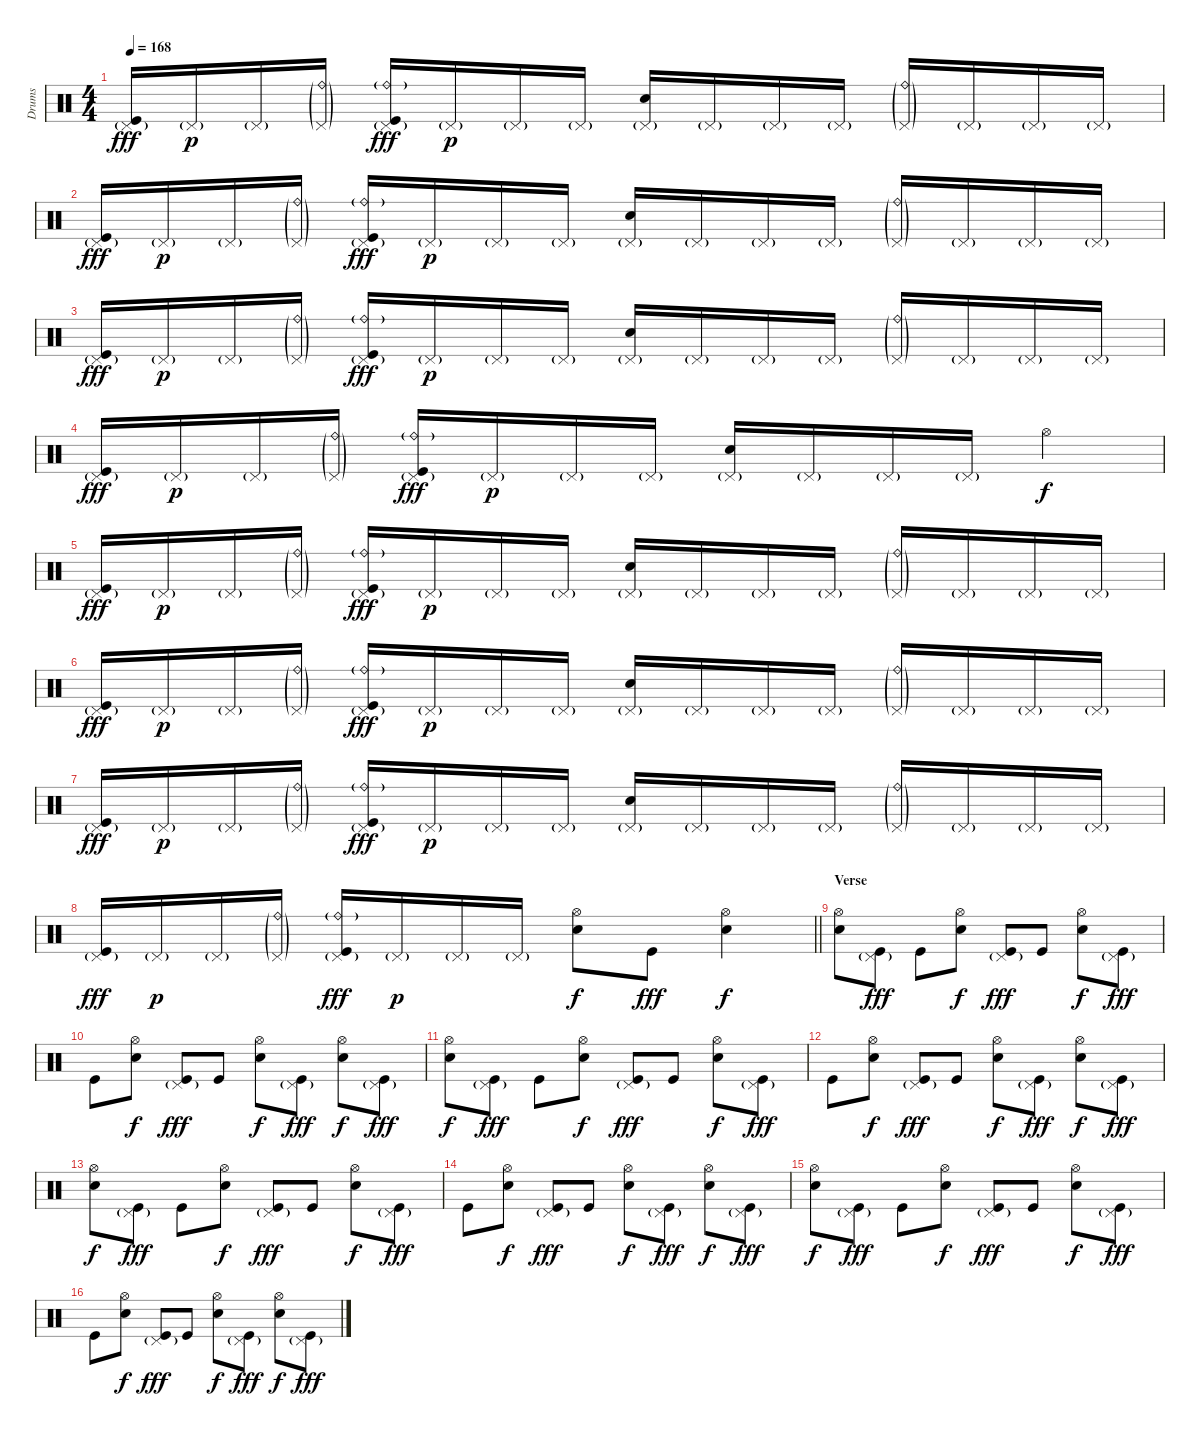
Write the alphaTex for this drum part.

\track ("Drums" "Drums") {instrument percussion}
\staff {score}
\articulation defaults
\ts (4 4)
\tempo 168
\clef neutral
\ks c
("Pedal Hi-Hat (hit)"{g} "Kick (hit)").16{dy fff} "Pedal Hi-Hat (hit)"{g}.16{dy p} "Pedal Hi-Hat (hit)"{g}.16 ("Ride (bell)"{g} "Pedal Hi-Hat (hit)"{g}).16 ("Ride (bell)"{g} "Pedal Hi-Hat (hit)"{g} "Kick (hit)").16{dy fff} "Pedal Hi-Hat (hit)"{g}.16{dy p} "Pedal Hi-Hat (hit)"{g}.16 "Pedal Hi-Hat (hit)"{g}.16 ("Pedal Hi-Hat (hit)"{g} "Snare (hit) 2").16 "Pedal Hi-Hat (hit)"{g}.16 "Pedal Hi-Hat (hit)"{g}.16 "Pedal Hi-Hat (hit)"{g}.16 ("Ride (bell)"{g} "Pedal Hi-Hat (hit)"{g}).16 "Pedal Hi-Hat (hit)"{g}.16 "Pedal Hi-Hat (hit)"{g}.16 "Pedal Hi-Hat (hit)"{g}.16 |
("Pedal Hi-Hat (hit)"{g} "Kick (hit)").16{dy fff} "Pedal Hi-Hat (hit)"{g}.16{dy p} "Pedal Hi-Hat (hit)"{g}.16 ("Ride (bell)"{g} "Pedal Hi-Hat (hit)"{g}).16 ("Ride (bell)"{g} "Pedal Hi-Hat (hit)"{g} "Kick (hit)").16{dy fff} "Pedal Hi-Hat (hit)"{g}.16{dy p} "Pedal Hi-Hat (hit)"{g}.16 "Pedal Hi-Hat (hit)"{g}.16 ("Pedal Hi-Hat (hit)"{g} "Snare (hit) 2").16 "Pedal Hi-Hat (hit)"{g}.16 "Pedal Hi-Hat (hit)"{g}.16 "Pedal Hi-Hat (hit)"{g}.16 ("Ride (bell)"{g} "Pedal Hi-Hat (hit)"{g}).16 "Pedal Hi-Hat (hit)"{g}.16 "Pedal Hi-Hat (hit)"{g}.16 "Pedal Hi-Hat (hit)"{g}.16 |
("Pedal Hi-Hat (hit)"{g} "Kick (hit)").16{dy fff} "Pedal Hi-Hat (hit)"{g}.16{dy p} "Pedal Hi-Hat (hit)"{g}.16 ("Ride (bell)"{g} "Pedal Hi-Hat (hit)"{g}).16 ("Ride (bell)"{g} "Pedal Hi-Hat (hit)"{g} "Kick (hit)").16{dy fff} "Pedal Hi-Hat (hit)"{g}.16{dy p} "Pedal Hi-Hat (hit)"{g}.16 "Pedal Hi-Hat (hit)"{g}.16 ("Pedal Hi-Hat (hit)"{g} "Snare (hit) 2").16 "Pedal Hi-Hat (hit)"{g}.16 "Pedal Hi-Hat (hit)"{g}.16 "Pedal Hi-Hat (hit)"{g}.16 ("Ride (bell)"{g} "Pedal Hi-Hat (hit)"{g}).16 "Pedal Hi-Hat (hit)"{g}.16 "Pedal Hi-Hat (hit)"{g}.16 "Pedal Hi-Hat (hit)"{g}.16 |
("Pedal Hi-Hat (hit)"{g} "Kick (hit)").16{dy fff} "Pedal Hi-Hat (hit)"{g}.16{dy p} "Pedal Hi-Hat (hit)"{g}.16 ("Ride (bell)"{g} "Pedal Hi-Hat (hit)"{g}).16 ("Ride (bell)"{g} "Pedal Hi-Hat (hit)"{g} "Kick (hit)").16{dy fff} "Pedal Hi-Hat (hit)"{g}.16{dy p} "Pedal Hi-Hat (hit)"{g}.16 "Pedal Hi-Hat (hit)"{g}.16 ("Pedal Hi-Hat (hit)"{g} "Snare (hit) 2").16 "Pedal Hi-Hat (hit)"{g}.16 "Pedal Hi-Hat (hit)"{g}.16 "Pedal Hi-Hat (hit)"{g}.16 "Hi-Hat (open)".4{dy f} |
("Pedal Hi-Hat (hit)"{g} "Kick (hit)").16{dy fff} "Pedal Hi-Hat (hit)"{g}.16{dy p} "Pedal Hi-Hat (hit)"{g}.16 ("Ride (bell)"{g} "Pedal Hi-Hat (hit)"{g}).16 ("Ride (bell)"{g} "Pedal Hi-Hat (hit)"{g} "Kick (hit)").16{dy fff} "Pedal Hi-Hat (hit)"{g}.16{dy p} "Pedal Hi-Hat (hit)"{g}.16 "Pedal Hi-Hat (hit)"{g}.16 ("Pedal Hi-Hat (hit)"{g} "Snare (hit) 2").16 "Pedal Hi-Hat (hit)"{g}.16 "Pedal Hi-Hat (hit)"{g}.16 "Pedal Hi-Hat (hit)"{g}.16 ("Ride (bell)"{g} "Pedal Hi-Hat (hit)"{g}).16 "Pedal Hi-Hat (hit)"{g}.16 "Pedal Hi-Hat (hit)"{g}.16 "Pedal Hi-Hat (hit)"{g}.16 |
("Pedal Hi-Hat (hit)"{g} "Kick (hit)").16{dy fff} "Pedal Hi-Hat (hit)"{g}.16{dy p} "Pedal Hi-Hat (hit)"{g}.16 ("Ride (bell)"{g} "Pedal Hi-Hat (hit)"{g}).16 ("Ride (bell)"{g} "Pedal Hi-Hat (hit)"{g} "Kick (hit)").16{dy fff} "Pedal Hi-Hat (hit)"{g}.16{dy p} "Pedal Hi-Hat (hit)"{g}.16 "Pedal Hi-Hat (hit)"{g}.16 ("Pedal Hi-Hat (hit)"{g} "Snare (hit) 2").16 "Pedal Hi-Hat (hit)"{g}.16 "Pedal Hi-Hat (hit)"{g}.16 "Pedal Hi-Hat (hit)"{g}.16 ("Ride (bell)"{g} "Pedal Hi-Hat (hit)"{g}).16 "Pedal Hi-Hat (hit)"{g}.16 "Pedal Hi-Hat (hit)"{g}.16 "Pedal Hi-Hat (hit)"{g}.16 |
("Pedal Hi-Hat (hit)"{g} "Kick (hit)").16{dy fff} "Pedal Hi-Hat (hit)"{g}.16{dy p} "Pedal Hi-Hat (hit)"{g}.16 ("Ride (bell)"{g} "Pedal Hi-Hat (hit)"{g}).16 ("Ride (bell)"{g} "Pedal Hi-Hat (hit)"{g} "Kick (hit)").16{dy fff} "Pedal Hi-Hat (hit)"{g}.16{dy p} "Pedal Hi-Hat (hit)"{g}.16 "Pedal Hi-Hat (hit)"{g}.16 ("Pedal Hi-Hat (hit)"{g} "Snare (hit) 2").16 "Pedal Hi-Hat (hit)"{g}.16 "Pedal Hi-Hat (hit)"{g}.16 "Pedal Hi-Hat (hit)"{g}.16 ("Ride (bell)"{g} "Pedal Hi-Hat (hit)"{g}).16 "Pedal Hi-Hat (hit)"{g}.16 "Pedal Hi-Hat (hit)"{g}.16 "Pedal Hi-Hat (hit)"{g}.16 |
\barLineRight lightlight
("Pedal Hi-Hat (hit)"{g} "Kick (hit)").16{dy fff} "Pedal Hi-Hat (hit)"{g}.16{dy p} "Pedal Hi-Hat (hit)"{g}.16 ("Ride (bell)"{g} "Pedal Hi-Hat (hit)"{g}).16 ("Ride (bell)"{g} "Pedal Hi-Hat (hit)"{g} "Kick (hit)").16{dy fff} "Pedal Hi-Hat (hit)"{g}.16{dy p} "Pedal Hi-Hat (hit)"{g}.16 "Pedal Hi-Hat (hit)"{g}.16 ("Hi-Hat (open)" "Snare (hit) 2").8{dy f} "Kick (hit)".8{dy fff} ("Hi-Hat (open)" "Snare (hit) 2").4{dy f} |
\section ("" "Verse")
("Hi-Hat (open)" "Snare (hit) 2").8 ("Pedal Hi-Hat (hit)"{g} "Kick (hit)").8{dy fff} "Kick (hit)".8 ("Hi-Hat (open)" "Snare (hit) 2").8{dy f} ("Pedal Hi-Hat (hit)"{g} "Kick (hit)").8{dy fff} "Kick (hit)".8 ("Hi-Hat (open)" "Snare (hit) 2").8{dy f} ("Pedal Hi-Hat (hit)"{g} "Kick (hit)").8{dy fff} |
"Kick (hit)".8 ("Hi-Hat (open)" "Snare (hit) 2").8{dy f} ("Pedal Hi-Hat (hit)"{g} "Kick (hit)").8{dy fff} "Kick (hit)".8 ("Hi-Hat (open)" "Snare (hit) 2").8{dy f} ("Pedal Hi-Hat (hit)"{g} "Kick (hit)").8{dy fff} ("Hi-Hat (open)" "Snare (hit) 2").8{dy f} ("Pedal Hi-Hat (hit)"{g} "Kick (hit)").8{dy fff} |
("Hi-Hat (open)" "Snare (hit) 2").8{dy f} ("Pedal Hi-Hat (hit)"{g} "Kick (hit)").8{dy fff} "Kick (hit)".8 ("Hi-Hat (open)" "Snare (hit) 2").8{dy f} ("Pedal Hi-Hat (hit)"{g} "Kick (hit)").8{dy fff} "Kick (hit)".8 ("Hi-Hat (open)" "Snare (hit) 2").8{dy f} ("Pedal Hi-Hat (hit)"{g} "Kick (hit)").8{dy fff} |
"Kick (hit)".8 ("Hi-Hat (open)" "Snare (hit) 2").8{dy f} ("Pedal Hi-Hat (hit)"{g} "Kick (hit)").8{dy fff} "Kick (hit)".8 ("Hi-Hat (open)" "Snare (hit) 2").8{dy f} ("Pedal Hi-Hat (hit)"{g} "Kick (hit)").8{dy fff} ("Hi-Hat (open)" "Snare (hit) 2").8{dy f} ("Pedal Hi-Hat (hit)"{g} "Kick (hit)").8{dy fff} |
("Hi-Hat (open)" "Snare (hit) 2").8{dy f} ("Pedal Hi-Hat (hit)"{g} "Kick (hit)").8{dy fff} "Kick (hit)".8 ("Hi-Hat (open)" "Snare (hit) 2").8{dy f} ("Pedal Hi-Hat (hit)"{g} "Kick (hit)").8{dy fff} "Kick (hit)".8 ("Hi-Hat (open)" "Snare (hit) 2").8{dy f} ("Pedal Hi-Hat (hit)"{g} "Kick (hit)").8{dy fff} |
"Kick (hit)".8 ("Hi-Hat (open)" "Snare (hit) 2").8{dy f} ("Pedal Hi-Hat (hit)"{g} "Kick (hit)").8{dy fff} "Kick (hit)".8 ("Hi-Hat (open)" "Snare (hit) 2").8{dy f} ("Pedal Hi-Hat (hit)"{g} "Kick (hit)").8{dy fff} ("Hi-Hat (open)" "Snare (hit) 2").8{dy f} ("Pedal Hi-Hat (hit)"{g} "Kick (hit)").8{dy fff} |
("Hi-Hat (open)" "Snare (hit) 2").8{dy f} ("Pedal Hi-Hat (hit)"{g} "Kick (hit)").8{dy fff} "Kick (hit)".8 ("Hi-Hat (open)" "Snare (hit) 2").8{dy f} ("Pedal Hi-Hat (hit)"{g} "Kick (hit)").8{dy fff} "Kick (hit)".8 ("Hi-Hat (open)" "Snare (hit) 2").8{dy f} ("Pedal Hi-Hat (hit)"{g} "Kick (hit)").8{dy fff} |
"Kick (hit)".8 ("Hi-Hat (open)" "Snare (hit) 2").8{dy f} ("Pedal Hi-Hat (hit)"{g} "Kick (hit)").8{dy fff} "Kick (hit)".8 ("Hi-Hat (open)" "Snare (hit) 2").8{dy f} ("Pedal Hi-Hat (hit)"{g} "Kick (hit)").8{dy fff} ("Hi-Hat (open)" "Snare (hit) 2").8{dy f} ("Pedal Hi-Hat (hit)"{g} "Kick (hit)").8{dy fff}
